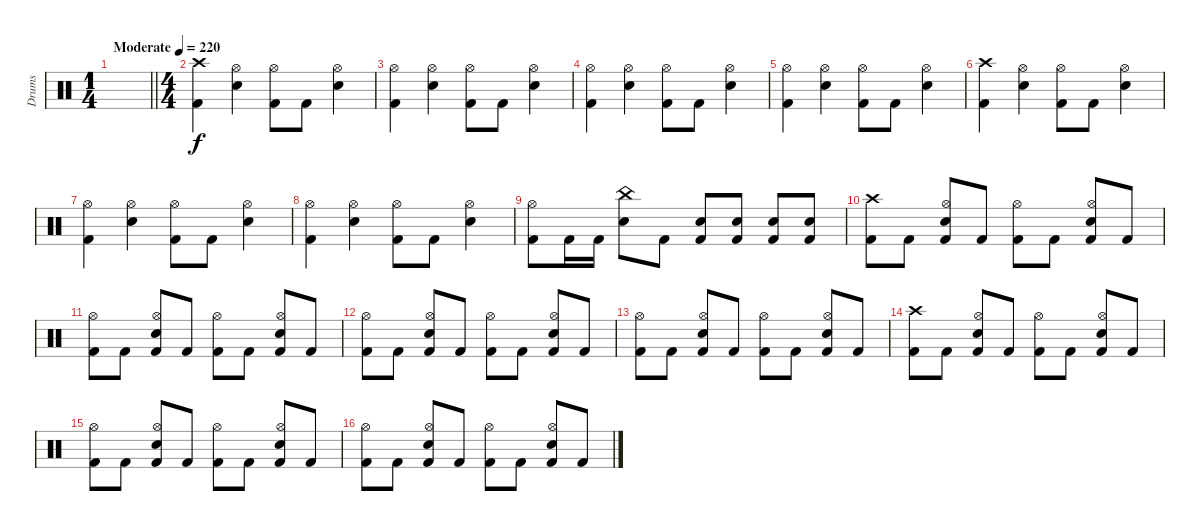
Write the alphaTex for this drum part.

\track ("Drums" "Drums") {instrument percussion}
\staff {score}
\articulation defaults
\ts (1 4)
\tempo (220 "Moderate")
\clef neutral
\barLineRight lightlight
\ks c
|
\ts (4 4)
("Crash high (hit)" "Kick (hit) 2").4 ("Hi-Hat (open)" "Snare (hit) 2").4 ("Hi-Hat (open)" "Kick (hit) 2").8 "Kick (hit) 2".8 ("Hi-Hat (open)" "Snare (hit) 2").4 |
("Hi-Hat (open)" "Kick (hit) 2").4 ("Hi-Hat (open)" "Snare (hit) 2").4 ("Hi-Hat (open)" "Kick (hit) 2").8 "Kick (hit) 2".8 ("Hi-Hat (open)" "Snare (hit) 2").4 |
("Hi-Hat (open)" "Kick (hit) 2").4 ("Hi-Hat (open)" "Snare (hit) 2").4 ("Hi-Hat (open)" "Kick (hit) 2").8 "Kick (hit) 2".8 ("Hi-Hat (open)" "Snare (hit) 2").4 |
("Hi-Hat (open)" "Kick (hit) 2").4 ("Hi-Hat (open)" "Snare (hit) 2").4 ("Hi-Hat (open)" "Kick (hit) 2").8 "Kick (hit) 2".8 ("Hi-Hat (open)" "Snare (hit) 2").4 |
("Crash high (hit)" "Kick (hit) 2").4 ("Hi-Hat (open)" "Snare (hit) 2").4 ("Hi-Hat (open)" "Kick (hit) 2").8 "Kick (hit) 2".8 ("Hi-Hat (open)" "Snare (hit) 2").4 |
("Hi-Hat (open)" "Kick (hit) 2").4 ("Hi-Hat (open)" "Snare (hit) 2").4 ("Hi-Hat (open)" "Kick (hit) 2").8 "Kick (hit) 2".8 ("Hi-Hat (open)" "Snare (hit) 2").4 |
("Hi-Hat (open)" "Kick (hit) 2").4 ("Hi-Hat (open)" "Snare (hit) 2").4 ("Hi-Hat (open)" "Kick (hit) 2").8 "Kick (hit) 2".8 ("Hi-Hat (open)" "Snare (hit) 2").4 |
("Hi-Hat (open)" "Kick (hit) 2").8 "Kick (hit) 2".16 "Kick (hit) 2".16 ("China (hit)" "Snare (hit) 2").8 "Kick (hit) 2".8 ("Snare (hit) 2" "Kick (hit) 2").8 ("Snare (hit) 2" "Kick (hit) 2").8 ("Snare (hit) 2" "Kick (hit) 2").8 ("Snare (hit) 2" "Kick (hit) 2").8 |
("Crash high (hit)" "Kick (hit) 2").8 "Kick (hit) 2".8 ("Hi-Hat (open)" "Snare (hit) 2" "Kick (hit) 2").8 "Kick (hit) 2".8 ("Hi-Hat (open)" "Kick (hit) 2").8 "Kick (hit) 2".8 ("Hi-Hat (open)" "Snare (hit) 2" "Kick (hit) 2").8 "Kick (hit) 2".8 |
("Hi-Hat (open)" "Kick (hit) 2").8 "Kick (hit) 2".8 ("Hi-Hat (open)" "Snare (hit) 2" "Kick (hit) 2").8 "Kick (hit) 2".8 ("Hi-Hat (open)" "Kick (hit) 2").8 "Kick (hit) 2".8 ("Hi-Hat (open)" "Snare (hit) 2" "Kick (hit) 2").8 "Kick (hit) 2".8 |
("Hi-Hat (open)" "Kick (hit) 2").8 "Kick (hit) 2".8 ("Hi-Hat (open)" "Snare (hit) 2" "Kick (hit) 2").8 "Kick (hit) 2".8 ("Hi-Hat (open)" "Kick (hit) 2").8 "Kick (hit) 2".8 ("Hi-Hat (open)" "Snare (hit) 2" "Kick (hit) 2").8 "Kick (hit) 2".8 |
("Hi-Hat (open)" "Kick (hit) 2").8 "Kick (hit) 2".8 ("Hi-Hat (open)" "Snare (hit) 2" "Kick (hit) 2").8 "Kick (hit) 2".8 ("Hi-Hat (open)" "Kick (hit) 2").8 "Kick (hit) 2".8 ("Hi-Hat (open)" "Snare (hit) 2" "Kick (hit) 2").8 "Kick (hit) 2".8 |
("Crash high (hit)" "Kick (hit) 2").8 "Kick (hit) 2".8 ("Hi-Hat (open)" "Snare (hit) 2" "Kick (hit) 2").8 "Kick (hit) 2".8 ("Hi-Hat (open)" "Kick (hit) 2").8 "Kick (hit) 2".8 ("Hi-Hat (open)" "Snare (hit) 2" "Kick (hit) 2").8 "Kick (hit) 2".8 |
("Hi-Hat (open)" "Kick (hit) 2").8 "Kick (hit) 2".8 ("Hi-Hat (open)" "Snare (hit) 2" "Kick (hit) 2").8 "Kick (hit) 2".8 ("Hi-Hat (open)" "Kick (hit) 2").8 "Kick (hit) 2".8 ("Hi-Hat (open)" "Snare (hit) 2" "Kick (hit) 2").8 "Kick (hit) 2".8 |
("Hi-Hat (open)" "Kick (hit) 2").8 "Kick (hit) 2".8 ("Hi-Hat (open)" "Snare (hit) 2" "Kick (hit) 2").8 "Kick (hit) 2".8 ("Hi-Hat (open)" "Kick (hit) 2").8 "Kick (hit) 2".8 ("Hi-Hat (open)" "Snare (hit) 2" "Kick (hit) 2").8 "Kick (hit) 2".8
